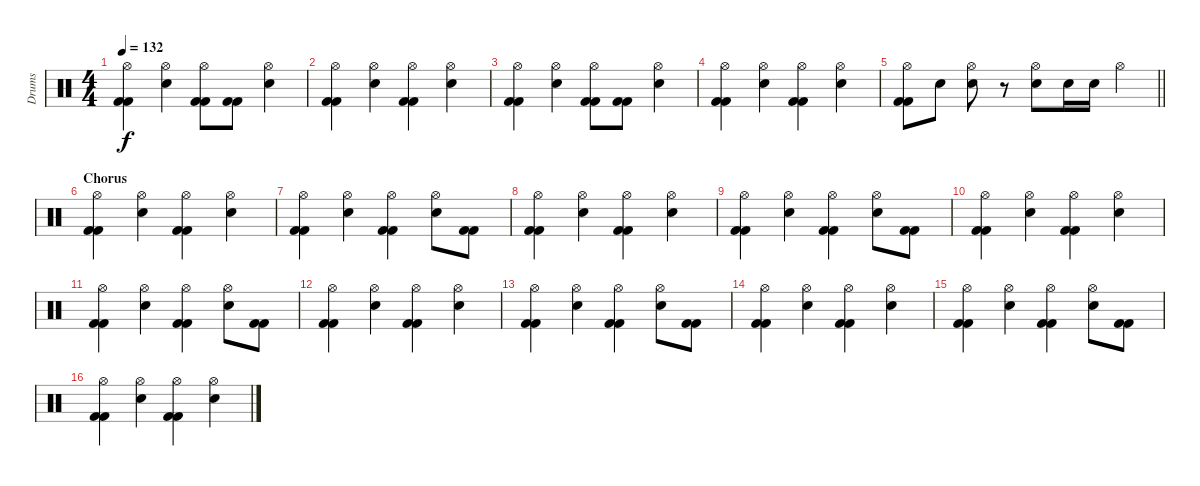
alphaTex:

\track ("Drums" "Drums") {instrument percussion}
\staff {score}
\articulation defaults
\ts (4 4)
\tempo 132
\clef neutral
\ks c
("Hi-Hat (open)" "Kick (hit) 2" "Kick (hit) 2").4{dy f} ("Hi-Hat (open)" "Snare (hit) 2").4 ("Hi-Hat (open)" "Kick (hit) 2" "Kick (hit) 2").8 ("Kick (hit) 2" "Kick (hit) 2").8 ("Hi-Hat (open)" "Snare (hit) 2").4 |
("Hi-Hat (open)" "Kick (hit) 2" "Kick (hit) 2").4 ("Hi-Hat (open)" "Snare (hit) 2").4 ("Hi-Hat (open)" "Kick (hit) 2" "Kick (hit) 2").4 ("Hi-Hat (open)" "Snare (hit) 2").4 |
("Hi-Hat (open)" "Kick (hit) 2" "Kick (hit) 2").4 ("Hi-Hat (open)" "Snare (hit) 2").4 ("Hi-Hat (open)" "Kick (hit) 2" "Kick (hit) 2").8 ("Kick (hit) 2" "Kick (hit) 2").8 ("Hi-Hat (open)" "Snare (hit) 2").4 |
("Hi-Hat (open)" "Kick (hit) 2" "Kick (hit) 2").4 ("Hi-Hat (open)" "Snare (hit) 2").4 ("Hi-Hat (open)" "Kick (hit) 2" "Kick (hit) 2").4 ("Hi-Hat (open)" "Snare (hit) 2").4 |
\barLineRight lightlight
("Hi-Hat (open)" "Kick (hit) 2" "Kick (hit) 2").8 "Snare (hit) 2".8 ("Hi-Hat (open)" "Snare (hit) 2").8 r.8 ("Hi-Hat (open)" "Snare (hit) 2").8 "Snare (hit) 2".16 "Snare (hit) 2".16 "Hi-Hat (open)".4 |
\section ("" "Chorus")
("Hi-Hat (open)" "Kick (hit) 2" "Kick (hit) 2").4 ("Hi-Hat (open)" "Snare (hit) 2").4 ("Hi-Hat (open)" "Kick (hit) 2" "Kick (hit) 2").4 ("Hi-Hat (open)" "Snare (hit) 2").4 |
("Hi-Hat (open)" "Kick (hit) 2" "Kick (hit) 2").4 ("Hi-Hat (open)" "Snare (hit) 2").4 ("Hi-Hat (open)" "Kick (hit) 2" "Kick (hit) 2").4 ("Hi-Hat (open)" "Snare (hit) 2").8 ("Kick (hit) 2" "Kick (hit) 2").8 |
("Hi-Hat (open)" "Kick (hit) 2" "Kick (hit) 2").4 ("Hi-Hat (open)" "Snare (hit) 2").4 ("Hi-Hat (open)" "Kick (hit) 2" "Kick (hit) 2").4 ("Hi-Hat (open)" "Snare (hit) 2").4 |
("Hi-Hat (open)" "Kick (hit) 2" "Kick (hit) 2").4 ("Hi-Hat (open)" "Snare (hit) 2").4 ("Hi-Hat (open)" "Kick (hit) 2" "Kick (hit) 2").4 ("Hi-Hat (open)" "Snare (hit) 2").8 ("Kick (hit) 2" "Kick (hit) 2").8 |
("Hi-Hat (open)" "Kick (hit) 2" "Kick (hit) 2").4 ("Hi-Hat (open)" "Snare (hit) 2").4 ("Hi-Hat (open)" "Kick (hit) 2" "Kick (hit) 2").4 ("Hi-Hat (open)" "Snare (hit) 2").4 |
("Hi-Hat (open)" "Kick (hit) 2" "Kick (hit) 2").4 ("Hi-Hat (open)" "Snare (hit) 2").4 ("Hi-Hat (open)" "Kick (hit) 2" "Kick (hit) 2").4 ("Hi-Hat (open)" "Snare (hit) 2").8 ("Kick (hit) 2" "Kick (hit) 2").8 |
("Hi-Hat (open)" "Kick (hit) 2" "Kick (hit) 2").4 ("Hi-Hat (open)" "Snare (hit) 2").4 ("Hi-Hat (open)" "Kick (hit) 2" "Kick (hit) 2").4 ("Hi-Hat (open)" "Snare (hit) 2").4 |
("Hi-Hat (open)" "Kick (hit) 2" "Kick (hit) 2").4 ("Hi-Hat (open)" "Snare (hit) 2").4 ("Hi-Hat (open)" "Kick (hit) 2" "Kick (hit) 2").4 ("Hi-Hat (open)" "Snare (hit) 2").8 ("Kick (hit) 2" "Kick (hit) 2").8 |
("Hi-Hat (open)" "Kick (hit) 2" "Kick (hit) 2").4 ("Hi-Hat (open)" "Snare (hit) 2").4 ("Hi-Hat (open)" "Kick (hit) 2" "Kick (hit) 2").4 ("Hi-Hat (open)" "Snare (hit) 2").4 |
("Hi-Hat (open)" "Kick (hit) 2" "Kick (hit) 2").4 ("Hi-Hat (open)" "Snare (hit) 2").4 ("Hi-Hat (open)" "Kick (hit) 2" "Kick (hit) 2").4 ("Hi-Hat (open)" "Snare (hit) 2").8 ("Kick (hit) 2" "Kick (hit) 2").8 |
("Hi-Hat (open)" "Kick (hit) 2" "Kick (hit) 2").4 ("Hi-Hat (open)" "Snare (hit) 2").4 ("Hi-Hat (open)" "Kick (hit) 2" "Kick (hit) 2").4 ("Hi-Hat (open)" "Snare (hit) 2").4
